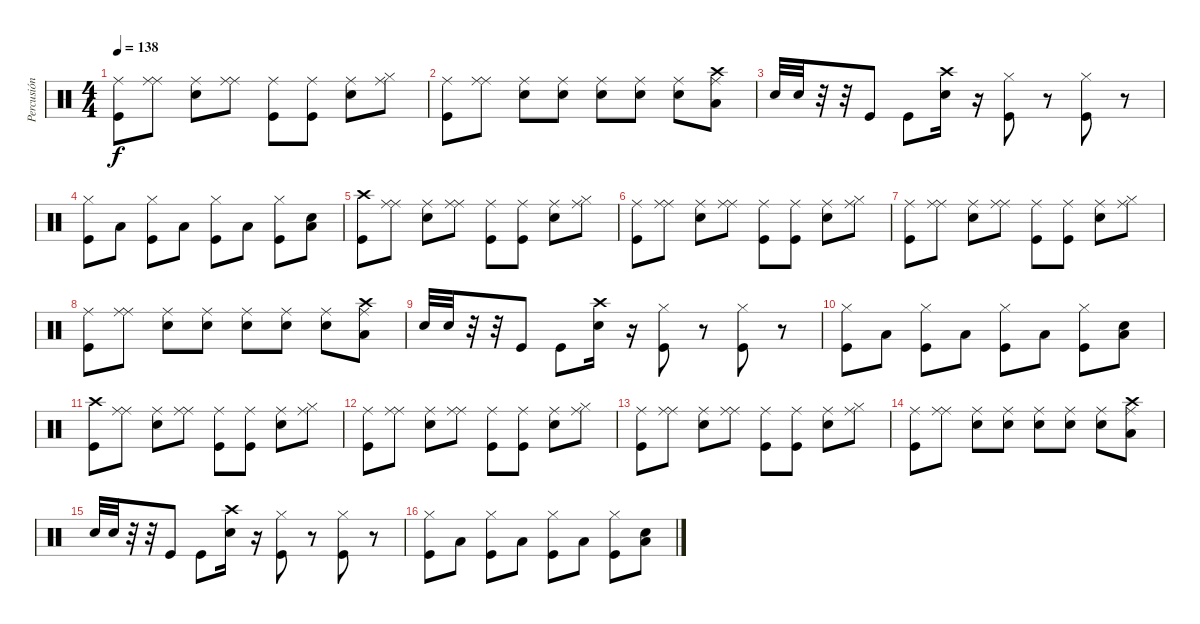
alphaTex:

\track ("Percusión" "Percusión") {instrument percussion}
\staff {score}
\articulation defaults
\ts (4 4)
\tempo 138
\clef neutral
\ks c
("Ride (middle)" "Kick (hit)").8{dy f} ("Ride (middle)" "Ride (middle)").8 ("Ride (middle)" "Snare (hit) 2").8 ("Ride (middle)" "Ride (middle)").8 ("Ride (middle)" "Kick (hit)").8 ("Ride (middle)" "Kick (hit)").8 ("Ride (middle)" "Snare (hit) 2").8 ("Ride (middle)" "Hi-Hat (closed)").8 |
("Ride (middle)" "Kick (hit)").8 ("Ride (middle)" "Ride (middle)").8 ("Ride (middle)" "Snare (hit) 2").8 ("Ride (middle)" "Snare (hit) 2").8 ("Ride (middle)" "Snare (hit) 2").8 ("Ride (middle)" "Snare (hit) 2").8 ("Ride (middle)" "Snare (hit) 2").8 ("Ride (middle)" "Low Tom (hit)" "Crash high (hit)").8 |
"Snare (hit) 2".32 "Snare (hit) 2".32 r.32 r.32 "Kick (hit)".8 "Kick (hit)".8 ("Crash high (hit)" "Snare (hit) 2").16 r.16 ("Hi-Hat (closed)" "Kick (hit)").8 r.8 ("Hi-Hat (closed)" "Kick (hit)").8 r.8 |
("Hi-Hat (closed)" "Kick (hit)").8 "Low Tom (hit)".8 ("Hi-Hat (closed)" "Kick (hit)").8 "Low Floor Tom (hit)".8 ("Hi-Hat (closed)" "Kick (hit)").8 "Low Floor Tom (hit)".8 ("Hi-Hat (closed)" "Kick (hit)").8 ("Low Floor Tom (hit)" "Snare (hit) 2").8 |
("Crash high (hit)" "Kick (hit)").8 ("Ride (middle)" "Ride (middle)").8 ("Ride (middle)" "Snare (hit) 2").8 ("Ride (middle)" "Ride (middle)").8 ("Ride (middle)" "Kick (hit)").8 ("Ride (middle)" "Kick (hit)").8 ("Ride (middle)" "Snare (hit) 2").8 ("Ride (middle)" "Hi-Hat (closed)").8 |
("Ride (middle)" "Kick (hit)").8 ("Ride (middle)" "Ride (middle)").8 ("Ride (middle)" "Snare (hit) 2").8 ("Ride (middle)" "Ride (middle)").8 ("Ride (middle)" "Kick (hit)").8 ("Ride (middle)" "Kick (hit)").8 ("Ride (middle)" "Snare (hit) 2").8 ("Ride (middle)" "Hi-Hat (closed)").8 |
("Ride (middle)" "Kick (hit)").8 ("Ride (middle)" "Ride (middle)").8 ("Ride (middle)" "Snare (hit) 2").8 ("Ride (middle)" "Ride (middle)").8 ("Ride (middle)" "Kick (hit)").8 ("Ride (middle)" "Kick (hit)").8 ("Ride (middle)" "Snare (hit) 2").8 ("Ride (middle)" "Hi-Hat (closed)").8 |
("Ride (middle)" "Kick (hit)").8 ("Ride (middle)" "Ride (middle)").8 ("Ride (middle)" "Snare (hit) 2").8 ("Ride (middle)" "Snare (hit) 2").8 ("Ride (middle)" "Snare (hit) 2").8 ("Ride (middle)" "Snare (hit) 2").8 ("Ride (middle)" "Snare (hit) 2").8 ("Ride (middle)" "Low Tom (hit)" "Crash high (hit)").8 |
"Snare (hit) 2".32 "Snare (hit) 2".32 r.32 r.32 "Kick (hit)".8 "Kick (hit)".8 ("Crash high (hit)" "Snare (hit) 2").16 r.16 ("Hi-Hat (closed)" "Kick (hit)").8 r.8 ("Hi-Hat (closed)" "Kick (hit)").8 r.8 |
("Hi-Hat (closed)" "Kick (hit)").8 "Low Tom (hit)".8 ("Hi-Hat (closed)" "Kick (hit)").8 "Low Floor Tom (hit)".8 ("Hi-Hat (closed)" "Kick (hit)").8 "Low Floor Tom (hit)".8 ("Hi-Hat (closed)" "Kick (hit)").8 ("Low Floor Tom (hit)" "Snare (hit) 2").8 |
("Crash high (hit)" "Kick (hit)").8 ("Ride (middle)" "Ride (middle)").8 ("Ride (middle)" "Snare (hit) 2").8 ("Ride (middle)" "Ride (middle)").8 ("Ride (middle)" "Kick (hit)").8 ("Ride (middle)" "Kick (hit)").8 ("Ride (middle)" "Snare (hit) 2").8 ("Ride (middle)" "Hi-Hat (closed)").8 |
("Ride (middle)" "Kick (hit)").8 ("Ride (middle)" "Ride (middle)").8 ("Ride (middle)" "Snare (hit) 2").8 ("Ride (middle)" "Ride (middle)").8 ("Ride (middle)" "Kick (hit)").8 ("Ride (middle)" "Kick (hit)").8 ("Ride (middle)" "Snare (hit) 2").8 ("Ride (middle)" "Hi-Hat (closed)").8 |
("Ride (middle)" "Kick (hit)").8 ("Ride (middle)" "Ride (middle)").8 ("Ride (middle)" "Snare (hit) 2").8 ("Ride (middle)" "Ride (middle)").8 ("Ride (middle)" "Kick (hit)").8 ("Ride (middle)" "Kick (hit)").8 ("Ride (middle)" "Snare (hit) 2").8 ("Ride (middle)" "Hi-Hat (closed)").8 |
("Ride (middle)" "Kick (hit)").8 ("Ride (middle)" "Ride (middle)").8 ("Ride (middle)" "Snare (hit) 2").8 ("Ride (middle)" "Snare (hit) 2").8 ("Ride (middle)" "Snare (hit) 2").8 ("Ride (middle)" "Snare (hit) 2").8 ("Ride (middle)" "Snare (hit) 2").8 ("Ride (middle)" "Low Tom (hit)" "Crash high (hit)").8 |
"Snare (hit) 2".32 "Snare (hit) 2".32 r.32 r.32 "Kick (hit)".8 "Kick (hit)".8 ("Crash high (hit)" "Snare (hit) 2").16 r.16 ("Hi-Hat (closed)" "Kick (hit)").8 r.8 ("Hi-Hat (closed)" "Kick (hit)").8 r.8 |
("Hi-Hat (closed)" "Kick (hit)").8 "Low Tom (hit)".8 ("Hi-Hat (closed)" "Kick (hit)").8 "Low Floor Tom (hit)".8 ("Hi-Hat (closed)" "Kick (hit)").8 "Low Floor Tom (hit)".8 ("Hi-Hat (closed)" "Kick (hit)").8 ("Low Floor Tom (hit)" "Snare (hit) 2").8
